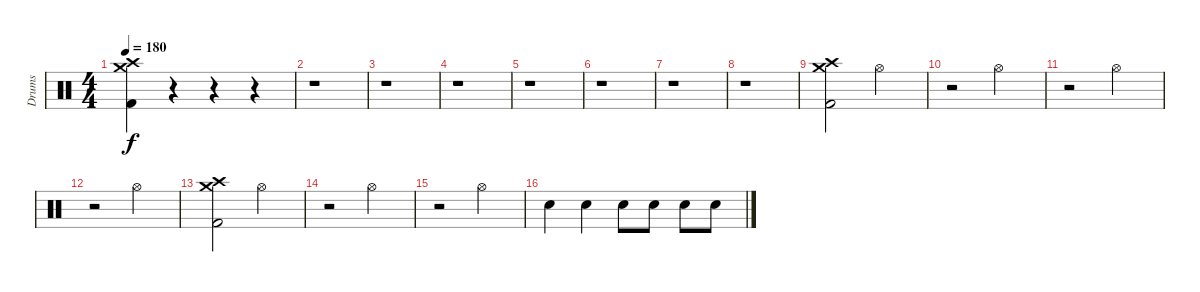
\track ("Drums" "Drums") {instrument percussion}
\staff {score}
\articulation defaults
\ts (4 4)
\tempo 180
\clef neutral
\ks c
("Crash high (hit)" "Crash medium (hit)" "Kick (hit) 2").4{dy f} r.4 r.4 r.4 |
r.1 |
r.1 |
r.1 |
r.1 |
r.1 |
r.1 |
r.1 |
("Crash medium (hit)" "Crash high (hit)" "Kick (hit) 2").2 "Hi-Hat (open)".2 |
r.2 "Hi-Hat (open)".2 |
r.2 "Hi-Hat (open)".2 |
r.2 "Hi-Hat (open)".2 |
("Crash high (hit)" "Crash medium (hit)" "Kick (hit) 2").2 "Hi-Hat (open)".2 |
r.2 "Hi-Hat (open)".2 |
r.2 "Hi-Hat (open)".2 |
"Snare (hit) 2".4 "Snare (hit) 2".4 "Snare (hit) 2".8 "Snare (hit) 2".8 "Snare (hit) 2".8 "Snare (hit) 2".8
